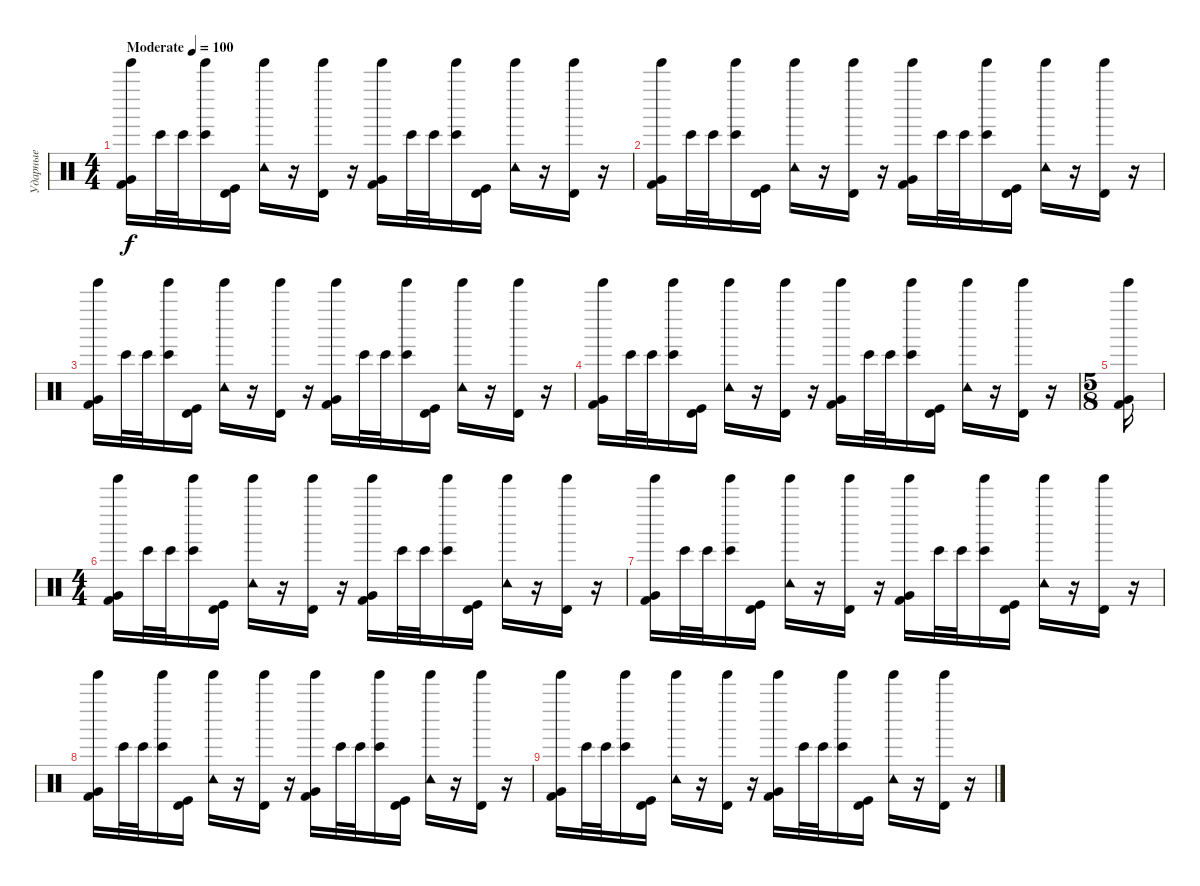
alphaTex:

\track ("Ударные" "Ударные") {instrument percussion}
\staff {score}
\articulation defaults
\ts (4 4)
\tempo (100 "Moderate")
\clef neutral
\ks c
("Kick (hit) 2" "Very Low Tom (hit)" "Tinkle Bell (hit)").16{dy f} "Bongo High (hit)".32 "Bongo High (hit)".32 ("Bongo High (hit)" "Tinkle Bell (hit)").16 ("Kick (hit)" "Timbale high (hit)").16 ("Tambourine (hit)" "Tinkle Bell (hit)").16 r.16 ("Timbale high (hit)" "Tinkle Bell (hit)").16 r.16 ("Kick (hit) 2" "Very Low Tom (hit)" "Tinkle Bell (hit)").16 "Bongo High (hit)".32 "Bongo High (hit)".32 ("Bongo High (hit)" "Tinkle Bell (hit)").16 ("Kick (hit)" "Timbale high (hit)").16 ("Tambourine (hit)" "Tinkle Bell (hit)").16 r.16 ("Timbale high (hit)" "Tinkle Bell (hit)").16 r.16 |
("Kick (hit) 2" "Very Low Tom (hit)" "Tinkle Bell (hit)").16 "Bongo High (hit)".32 "Bongo High (hit)".32 ("Bongo High (hit)" "Tinkle Bell (hit)").16 ("Kick (hit)" "Timbale high (hit)").16 ("Tambourine (hit)" "Tinkle Bell (hit)").16 r.16 ("Timbale high (hit)" "Tinkle Bell (hit)").16 r.16 ("Kick (hit) 2" "Very Low Tom (hit)" "Tinkle Bell (hit)").16 "Bongo High (hit)".32 "Bongo High (hit)".32 ("Bongo High (hit)" "Tinkle Bell (hit)").16 ("Kick (hit)" "Timbale high (hit)").16 ("Tambourine (hit)" "Tinkle Bell (hit)").16 r.16 ("Timbale high (hit)" "Tinkle Bell (hit)").16 r.16 |
("Kick (hit) 2" "Very Low Tom (hit)" "Tinkle Bell (hit)").16 "Bongo High (hit)".32 "Bongo High (hit)".32 ("Bongo High (hit)" "Tinkle Bell (hit)").16 ("Kick (hit)" "Timbale high (hit)").16 ("Tambourine (hit)" "Tinkle Bell (hit)").16 r.16 ("Timbale high (hit)" "Tinkle Bell (hit)").16 r.16 ("Kick (hit) 2" "Very Low Tom (hit)" "Tinkle Bell (hit)").16 "Bongo High (hit)".32 "Bongo High (hit)".32 ("Bongo High (hit)" "Tinkle Bell (hit)").16 ("Kick (hit)" "Timbale high (hit)").16 ("Tambourine (hit)" "Tinkle Bell (hit)").16 r.16 ("Timbale high (hit)" "Tinkle Bell (hit)").16 r.16 |
("Kick (hit) 2" "Very Low Tom (hit)" "Tinkle Bell (hit)").16 "Bongo High (hit)".32 "Bongo High (hit)".32 ("Bongo High (hit)" "Tinkle Bell (hit)").16 ("Kick (hit)" "Timbale high (hit)").16 ("Tambourine (hit)" "Tinkle Bell (hit)").16 r.16 ("Timbale high (hit)" "Tinkle Bell (hit)").16 r.16 ("Kick (hit) 2" "Very Low Tom (hit)" "Tinkle Bell (hit)").16 "Bongo High (hit)".32 "Bongo High (hit)".32 ("Bongo High (hit)" "Tinkle Bell (hit)").16 ("Kick (hit)" "Timbale high (hit)").16 ("Tambourine (hit)" "Tinkle Bell (hit)").16 r.16 ("Timbale high (hit)" "Tinkle Bell (hit)").16 r.16 |
\ts (5 8)
("Kick (hit) 2" "Very Low Tom (hit)" "Tinkle Bell (hit)").16 |
\ts (4 4)
("Kick (hit) 2" "Very Low Tom (hit)" "Tinkle Bell (hit)").16 "Bongo High (hit)".32 "Bongo High (hit)".32 ("Bongo High (hit)" "Tinkle Bell (hit)").16 ("Kick (hit)" "Timbale high (hit)").16 ("Tambourine (hit)" "Tinkle Bell (hit)").16 r.16 ("Timbale high (hit)" "Tinkle Bell (hit)").16 r.16 ("Kick (hit) 2" "Very Low Tom (hit)" "Tinkle Bell (hit)").16 "Bongo High (hit)".32 "Bongo High (hit)".32 ("Bongo High (hit)" "Tinkle Bell (hit)").16 ("Kick (hit)" "Timbale high (hit)").16 ("Tambourine (hit)" "Tinkle Bell (hit)").16 r.16 ("Timbale high (hit)" "Tinkle Bell (hit)").16 r.16 |
("Kick (hit) 2" "Very Low Tom (hit)" "Tinkle Bell (hit)").16 "Bongo High (hit)".32 "Bongo High (hit)".32 ("Bongo High (hit)" "Tinkle Bell (hit)").16 ("Kick (hit)" "Timbale high (hit)").16 ("Tambourine (hit)" "Tinkle Bell (hit)").16 r.16 ("Timbale high (hit)" "Tinkle Bell (hit)").16 r.16 ("Kick (hit) 2" "Very Low Tom (hit)" "Tinkle Bell (hit)").16 "Bongo High (hit)".32 "Bongo High (hit)".32 ("Bongo High (hit)" "Tinkle Bell (hit)").16 ("Kick (hit)" "Timbale high (hit)").16 ("Tambourine (hit)" "Tinkle Bell (hit)").16 r.16 ("Timbale high (hit)" "Tinkle Bell (hit)").16 r.16 |
("Kick (hit) 2" "Very Low Tom (hit)" "Tinkle Bell (hit)").16 "Bongo High (hit)".32 "Bongo High (hit)".32 ("Bongo High (hit)" "Tinkle Bell (hit)").16 ("Kick (hit)" "Timbale high (hit)").16 ("Tambourine (hit)" "Tinkle Bell (hit)").16 r.16 ("Timbale high (hit)" "Tinkle Bell (hit)").16 r.16 ("Kick (hit) 2" "Very Low Tom (hit)" "Tinkle Bell (hit)").16 "Bongo High (hit)".32 "Bongo High (hit)".32 ("Bongo High (hit)" "Tinkle Bell (hit)").16 ("Kick (hit)" "Timbale high (hit)").16 ("Tambourine (hit)" "Tinkle Bell (hit)").16 r.16 ("Timbale high (hit)" "Tinkle Bell (hit)").16 r.16 |
("Kick (hit) 2" "Very Low Tom (hit)" "Tinkle Bell (hit)").16 "Bongo High (hit)".32 "Bongo High (hit)".32 ("Bongo High (hit)" "Tinkle Bell (hit)").16 ("Kick (hit)" "Timbale high (hit)").16 ("Tambourine (hit)" "Tinkle Bell (hit)").16 r.16 ("Timbale high (hit)" "Tinkle Bell (hit)").16 r.16 ("Kick (hit) 2" "Very Low Tom (hit)" "Tinkle Bell (hit)").16 "Bongo High (hit)".32 "Bongo High (hit)".32 ("Bongo High (hit)" "Tinkle Bell (hit)").16 ("Kick (hit)" "Timbale high (hit)").16 ("Tambourine (hit)" "Tinkle Bell (hit)").16 r.16 ("Timbale high (hit)" "Tinkle Bell (hit)").16 r.16
